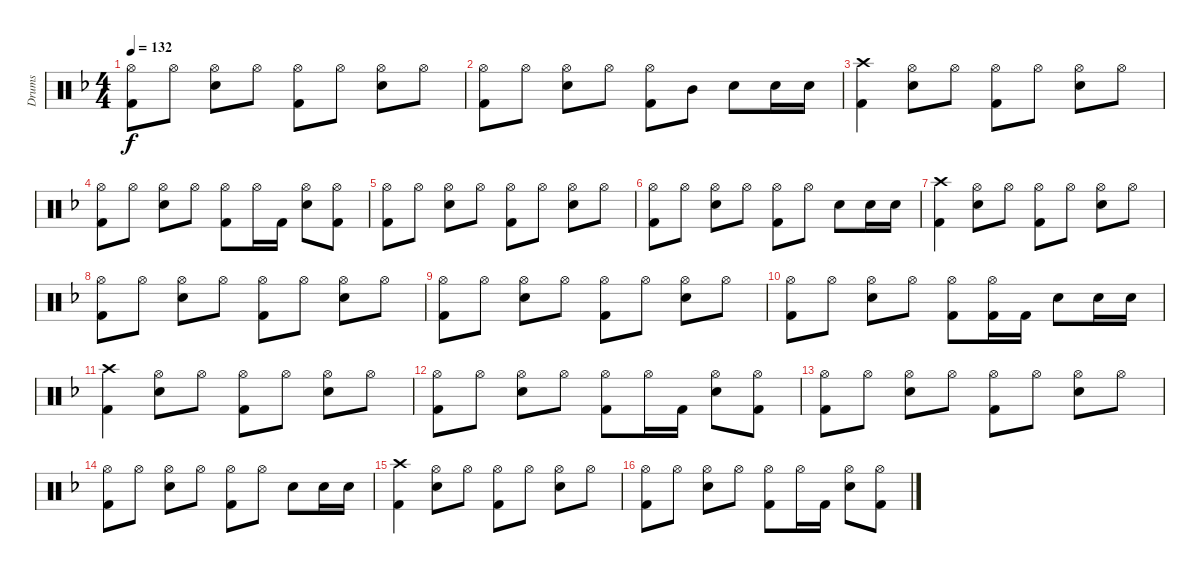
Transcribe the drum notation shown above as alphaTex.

\track ("Drums " "Drums ") {instrument percussion}
\staff {score}
\articulation defaults
\ts (4 4)
\tempo 132
\clef neutral
\ks dminor
("Kick (hit) 2" "Hi-Hat (open)").8{dy f} "Hi-Hat (open)".8 ("Snare (hit) 2" "Hi-Hat (open)").8 "Hi-Hat (open)".8 ("Kick (hit) 2" "Hi-Hat (open)").8 "Hi-Hat (open)".8 ("Snare (hit) 2" "Hi-Hat (open)").8 "Hi-Hat (open)".8 |
("Kick (hit) 2" "Hi-Hat (open)").8 "Hi-Hat (open)".8 ("Snare (hit) 2" "Hi-Hat (open)").8 "Hi-Hat (open)".8 ("Kick (hit) 2" "Hi-Hat (open)").8 "Mid Tom (hit)".8 "Snare (hit) 2".8 "Snare (hit) 2".16 "Snare (hit) 2".16 |
("Kick (hit) 2" "Crash high (hit)").4 ("Snare (hit) 2" "Hi-Hat (open)").8 "Hi-Hat (open)".8 ("Kick (hit) 2" "Hi-Hat (open)").8 "Hi-Hat (open)".8 ("Snare (hit) 2" "Hi-Hat (open)").8 "Hi-Hat (open)".8 |
("Kick (hit) 2" "Hi-Hat (open)").8 "Hi-Hat (open)".8 ("Snare (hit) 2" "Hi-Hat (open)").8 "Hi-Hat (open)".8 ("Kick (hit) 2" "Hi-Hat (open)").8 "Hi-Hat (open)".16 "Kick (hit) 2".16 ("Snare (hit) 2" "Hi-Hat (open)").8 ("Kick (hit) 2" "Hi-Hat (open)").8 |
("Kick (hit) 2" "Hi-Hat (open)").8 "Hi-Hat (open)".8 ("Snare (hit) 2" "Hi-Hat (open)").8 "Hi-Hat (open)".8 ("Kick (hit) 2" "Hi-Hat (open)").8 "Hi-Hat (open)".8 ("Snare (hit) 2" "Hi-Hat (open)").8 "Hi-Hat (open)".8 |
("Kick (hit) 2" "Hi-Hat (open)").8 "Hi-Hat (open)".8 ("Snare (hit) 2" "Hi-Hat (open)").8 "Hi-Hat (open)".8 ("Kick (hit) 2" "Hi-Hat (open)").8 "Hi-Hat (open)".8 "Snare (hit) 2".8 "Snare (hit) 2".16 "Snare (hit) 2".16 |
("Kick (hit) 2" "Crash high (hit)").4 ("Snare (hit) 2" "Hi-Hat (open)").8 "Hi-Hat (open)".8 ("Kick (hit) 2" "Hi-Hat (open)").8 "Hi-Hat (open)".8 ("Snare (hit) 2" "Hi-Hat (open)").8 "Hi-Hat (open)".8 |
("Kick (hit) 2" "Hi-Hat (open)").8 "Hi-Hat (open)".8 ("Snare (hit) 2" "Hi-Hat (open)").8 "Hi-Hat (open)".8 ("Kick (hit) 2" "Hi-Hat (open)").8 "Hi-Hat (open)".8 ("Snare (hit) 2" "Hi-Hat (open)").8 "Hi-Hat (open)".8 |
("Kick (hit) 2" "Hi-Hat (open)").8 "Hi-Hat (open)".8 ("Snare (hit) 2" "Hi-Hat (open)").8 "Hi-Hat (open)".8 ("Kick (hit) 2" "Hi-Hat (open)").8 "Hi-Hat (open)".8 ("Snare (hit) 2" "Hi-Hat (open)").8 "Hi-Hat (open)".8 |
("Kick (hit) 2" "Hi-Hat (open)").8 "Hi-Hat (open)".8 ("Snare (hit) 2" "Hi-Hat (open)").8 "Hi-Hat (open)".8 ("Kick (hit) 2" "Hi-Hat (open)").8 ("Kick (hit) 2" "Hi-Hat (open)").16 "Kick (hit) 2".16 "Snare (hit) 2".8 "Snare (hit) 2".16 "Snare (hit) 2".16 |
("Kick (hit) 2" "Crash high (hit)").4 ("Snare (hit) 2" "Hi-Hat (open)").8 "Hi-Hat (open)".8 ("Kick (hit) 2" "Hi-Hat (open)").8 "Hi-Hat (open)".8 ("Snare (hit) 2" "Hi-Hat (open)").8 "Hi-Hat (open)".8 |
("Kick (hit) 2" "Hi-Hat (open)").8 "Hi-Hat (open)".8 ("Snare (hit) 2" "Hi-Hat (open)").8 "Hi-Hat (open)".8 ("Kick (hit) 2" "Hi-Hat (open)").8 "Hi-Hat (open)".16 "Kick (hit) 2".16 ("Snare (hit) 2" "Hi-Hat (open)").8 ("Kick (hit) 2" "Hi-Hat (open)").8 |
("Kick (hit) 2" "Hi-Hat (open)").8 "Hi-Hat (open)".8 ("Snare (hit) 2" "Hi-Hat (open)").8 "Hi-Hat (open)".8 ("Kick (hit) 2" "Hi-Hat (open)").8 "Hi-Hat (open)".8 ("Snare (hit) 2" "Hi-Hat (open)").8 "Hi-Hat (open)".8 |
("Kick (hit) 2" "Hi-Hat (open)").8 "Hi-Hat (open)".8 ("Snare (hit) 2" "Hi-Hat (open)").8 "Hi-Hat (open)".8 ("Kick (hit) 2" "Hi-Hat (open)").8 "Hi-Hat (open)".8 "Snare (hit) 2".8 "Snare (hit) 2".16 "Snare (hit) 2".16 |
("Kick (hit) 2" "Crash high (hit)").4 ("Snare (hit) 2" "Hi-Hat (open)").8 "Hi-Hat (open)".8 ("Kick (hit) 2" "Hi-Hat (open)").8 "Hi-Hat (open)".8 ("Snare (hit) 2" "Hi-Hat (open)").8 "Hi-Hat (open)".8 |
("Kick (hit) 2" "Hi-Hat (open)").8 "Hi-Hat (open)".8 ("Snare (hit) 2" "Hi-Hat (open)").8 "Hi-Hat (open)".8 ("Kick (hit) 2" "Hi-Hat (open)").8 "Hi-Hat (open)".16 "Kick (hit) 2".16 ("Snare (hit) 2" "Hi-Hat (open)").8 ("Kick (hit) 2" "Hi-Hat (open)").8
